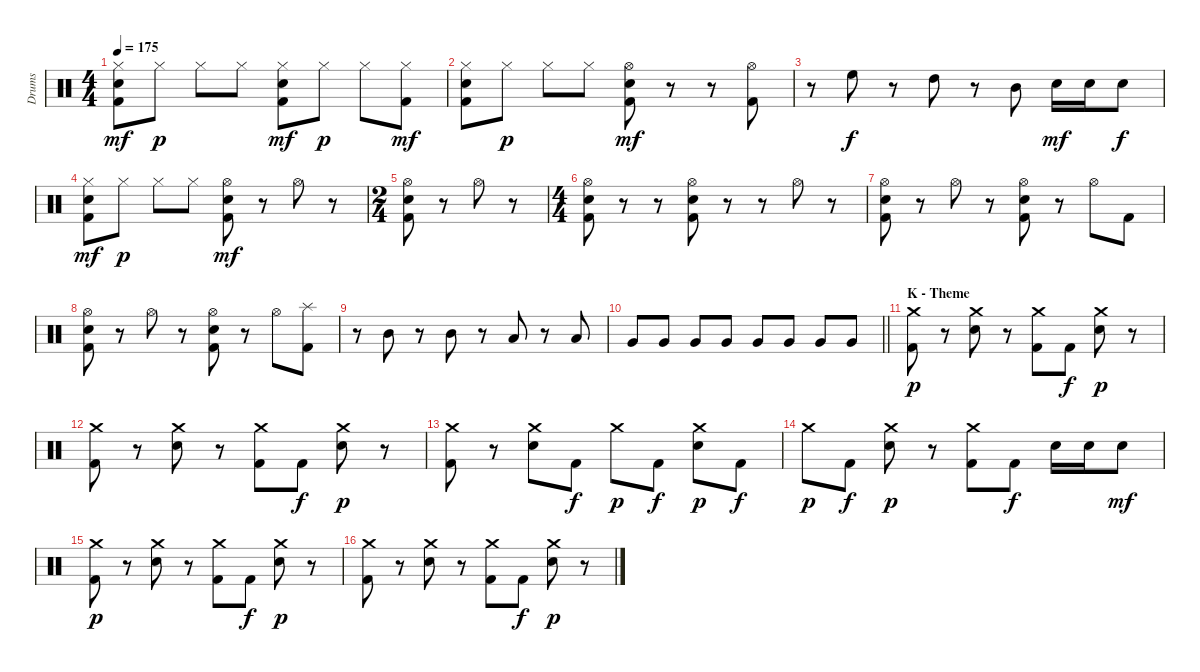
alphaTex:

\track ("Drums" "Drums") {instrument percussion}
\staff {score}
\articulation defaults
\ts (4 4)
\tempo 175
\clef neutral
\ks c
("Hi-Hat (closed)" "Electric Snare (hit)" "Kick (hit) 2").8{dy mf} "Hi-Hat (closed)".8{dy p} "Hi-Hat (closed)".8 "Hi-Hat (closed)".8 ("Hi-Hat (closed)" "Electric Snare (hit)" "Kick (hit) 2").8{dy mf} "Hi-Hat (closed)".8{dy p} "Hi-Hat (closed)".8 ("Hi-Hat (closed)" "Kick (hit) 2").8{dy mf} |
("Hi-Hat (closed)" "Electric Snare (hit)" "Kick (hit) 2").8 "Hi-Hat (closed)".8{dy p} "Hi-Hat (closed)".8 "Hi-Hat (closed)".8 ("Hi-Hat (open)" "Electric Snare (hit)" "Kick (hit) 2").8{dy mf} r.8 r.8 ("Hi-Hat (open)" "Kick (hit) 2").8 |
r.8 "High Floor Tom (hit)".8{dy f} r.8 "High Tom (hit)".8 r.8 "Mid Tom (hit)".8 "Electric Snare (hit)".16{dy mf} "Electric Snare (hit)".16 "Electric Snare (hit)".8{dy f} |
("Hi-Hat (closed)" "Electric Snare (hit)" "Kick (hit) 2").8{dy mf} "Hi-Hat (closed)".8{dy p} "Hi-Hat (closed)".8 "Hi-Hat (closed)".8 ("Hi-Hat (open)" "Electric Snare (hit)" "Kick (hit) 2").8{dy mf} r.8 "Hi-Hat (open)".8 r.8 |
\ts (2 4)
("Hi-Hat (open)" "Electric Snare (hit)" "Kick (hit) 2").8 r.8 "Hi-Hat (open)".8 r.8 |
\ts (4 4)
("Hi-Hat (open)" "Electric Snare (hit)" "Kick (hit) 2").8 r.8 r.8 ("Hi-Hat (open)" "Electric Snare (hit)" "Kick (hit) 2").8 r.8 r.8 "Hi-Hat (open)".8 r.8 |
("Hi-Hat (open)" "Electric Snare (hit)" "Kick (hit) 2").8 r.8 "Hi-Hat (open)".8 r.8 ("Hi-Hat (open)" "Electric Snare (hit)" "Kick (hit) 2").8 r.8 "Hi-Hat (open)".8 "Kick (hit) 2".8 |
("Hi-Hat (open)" "Electric Snare (hit)" "Kick (hit) 2").8 r.8 "Hi-Hat (open)".8 r.8 ("Hi-Hat (open)" "Electric Snare (hit)" "Kick (hit) 2").8 r.8 "Hi-Hat (open)".8 ("Splash (hit)" "Kick (hit) 2").8 |
r.8 "Mid Tom (hit)".8 r.8 "Mid Tom (hit)".8 r.8 "Low Tom (hit)".8 r.8 "Low Tom (hit)".8 |
\barLineRight lightlight "Very Low Tom (hit)".8 "Very Low Tom (hit)".8 "Very Low Tom (hit)".8 "Very Low Tom (hit)".8 "Very Low Tom (hit)".8 "Very Low Tom (hit)".8 "Very Low Tom (hit)".8 "Very Low Tom (hit)".8
|
\section ("" "K - Theme")
("Crash medium (hit)" "Kick (hit) 2").8{dy p} r.8 ("Crash medium (hit)" "Electric Snare (hit)").8 r.8 ("Crash medium (hit)" "Kick (hit) 2").8 "Kick (hit) 2".8{dy f} ("Crash medium (hit)" "Electric Snare (hit)").8{dy p} r.8 |
("Crash medium (hit)" "Kick (hit) 2").8 r.8 ("Crash medium (hit)" "Electric Snare (hit)").8 r.8 ("Crash medium (hit)" "Kick (hit) 2").8 "Kick (hit) 2".8{dy f} ("Crash medium (hit)" "Electric Snare (hit)").8{dy p} r.8 |
("Crash medium (hit)" "Kick (hit) 2").8 r.8 ("Crash medium (hit)" "Electric Snare (hit)").8 "Kick (hit) 2".8{dy f} "Crash medium (hit)".8{dy p} "Kick (hit) 2".8{dy f} ("Crash medium (hit)" "Electric Snare (hit)").8{dy p} "Kick (hit) 2".8{dy f} |
"Crash medium (hit)".8{dy p} "Kick (hit) 2".8{dy f} ("Crash medium (hit)" "Electric Snare (hit)").8{dy p} r.8 ("Crash medium (hit)" "Kick (hit) 2").8 "Kick (hit) 2".8{dy f} "Electric Snare (hit)".16 "Electric Snare (hit)".16 "Electric Snare (hit)".8{dy mf} |
("Crash medium (hit)" "Kick (hit) 2").8{dy p} r.8 ("Crash medium (hit)" "Electric Snare (hit)").8 r.8 ("Crash medium (hit)" "Kick (hit) 2").8 "Kick (hit) 2".8{dy f} ("Crash medium (hit)" "Electric Snare (hit)").8{dy p} r.8 |
("Crash medium (hit)" "Kick (hit) 2").8 r.8 ("Crash medium (hit)" "Electric Snare (hit)").8 r.8 ("Crash medium (hit)" "Kick (hit) 2").8 "Kick (hit) 2".8{dy f} ("Crash medium (hit)" "Electric Snare (hit)").8{dy p} r.8
